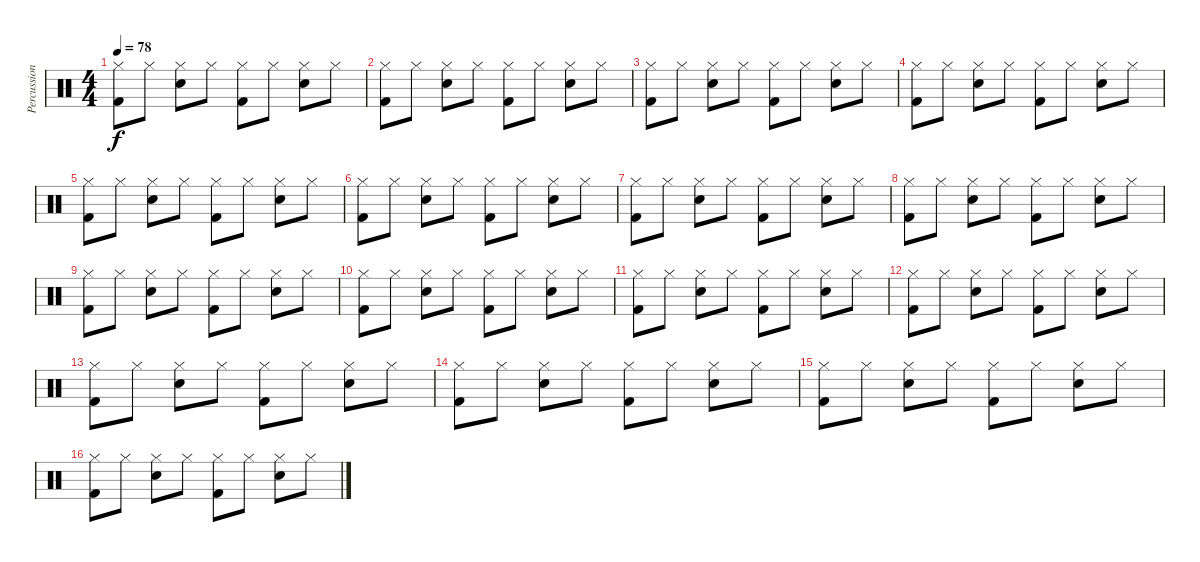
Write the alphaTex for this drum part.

\track ("Percussions" "Percussion") {instrument percussion}
\staff {score}
\articulation defaults
\ts (4 4)
\tempo 78
\clef neutral
\ks c
("Hi-Hat (closed)" "Kick (hit) 2").8{dy f} "Hi-Hat (closed)".8 ("Hi-Hat (closed)" "Electric Snare (hit)").8 "Hi-Hat (closed)".8 ("Hi-Hat (closed)" "Kick (hit) 2").8 "Hi-Hat (closed)".8 ("Hi-Hat (closed)" "Electric Snare (hit)").8 "Hi-Hat (closed)".8 |
("Hi-Hat (closed)" "Kick (hit) 2").8 "Hi-Hat (closed)".8 ("Hi-Hat (closed)" "Electric Snare (hit)").8 "Hi-Hat (closed)".8 ("Hi-Hat (closed)" "Kick (hit) 2").8 "Hi-Hat (closed)".8 ("Hi-Hat (closed)" "Electric Snare (hit)").8 "Hi-Hat (closed)".8 |
("Hi-Hat (closed)" "Kick (hit) 2").8 "Hi-Hat (closed)".8 ("Hi-Hat (closed)" "Electric Snare (hit)").8 "Hi-Hat (closed)".8 ("Hi-Hat (closed)" "Kick (hit) 2").8 "Hi-Hat (closed)".8 ("Hi-Hat (closed)" "Electric Snare (hit)").8 "Hi-Hat (closed)".8 |
("Hi-Hat (closed)" "Kick (hit) 2").8 "Hi-Hat (closed)".8 ("Hi-Hat (closed)" "Electric Snare (hit)").8 "Hi-Hat (closed)".8 ("Hi-Hat (closed)" "Kick (hit) 2").8 "Hi-Hat (closed)".8 ("Hi-Hat (closed)" "Electric Snare (hit)").8 "Hi-Hat (closed)".8 |
("Hi-Hat (closed)" "Kick (hit) 2").8 "Hi-Hat (closed)".8 ("Hi-Hat (closed)" "Electric Snare (hit)").8 "Hi-Hat (closed)".8 ("Hi-Hat (closed)" "Kick (hit) 2").8 "Hi-Hat (closed)".8 ("Hi-Hat (closed)" "Electric Snare (hit)").8 "Hi-Hat (closed)".8 |
("Hi-Hat (closed)" "Kick (hit) 2").8 "Hi-Hat (closed)".8 ("Hi-Hat (closed)" "Electric Snare (hit)").8 "Hi-Hat (closed)".8 ("Hi-Hat (closed)" "Kick (hit) 2").8 "Hi-Hat (closed)".8 ("Hi-Hat (closed)" "Electric Snare (hit)").8 "Hi-Hat (closed)".8 |
("Hi-Hat (closed)" "Kick (hit) 2").8 "Hi-Hat (closed)".8 ("Hi-Hat (closed)" "Electric Snare (hit)").8 "Hi-Hat (closed)".8 ("Hi-Hat (closed)" "Kick (hit) 2").8 "Hi-Hat (closed)".8 ("Hi-Hat (closed)" "Electric Snare (hit)").8 "Hi-Hat (closed)".8 |
("Hi-Hat (closed)" "Kick (hit) 2").8 "Hi-Hat (closed)".8 ("Hi-Hat (closed)" "Electric Snare (hit)").8 "Hi-Hat (closed)".8 ("Hi-Hat (closed)" "Kick (hit) 2").8 "Hi-Hat (closed)".8 ("Hi-Hat (closed)" "Electric Snare (hit)").8 "Hi-Hat (closed)".8 |
("Hi-Hat (closed)" "Kick (hit) 2").8 "Hi-Hat (closed)".8 ("Hi-Hat (closed)" "Electric Snare (hit)").8 "Hi-Hat (closed)".8 ("Hi-Hat (closed)" "Kick (hit) 2").8 "Hi-Hat (closed)".8 ("Hi-Hat (closed)" "Electric Snare (hit)").8 "Hi-Hat (closed)".8 |
("Hi-Hat (closed)" "Kick (hit) 2").8 "Hi-Hat (closed)".8 ("Hi-Hat (closed)" "Electric Snare (hit)").8 "Hi-Hat (closed)".8 ("Hi-Hat (closed)" "Kick (hit) 2").8 "Hi-Hat (closed)".8 ("Hi-Hat (closed)" "Electric Snare (hit)").8 "Hi-Hat (closed)".8 |
("Hi-Hat (closed)" "Kick (hit) 2").8 "Hi-Hat (closed)".8 ("Hi-Hat (closed)" "Electric Snare (hit)").8 "Hi-Hat (closed)".8 ("Hi-Hat (closed)" "Kick (hit) 2").8 "Hi-Hat (closed)".8 ("Hi-Hat (closed)" "Electric Snare (hit)").8 "Hi-Hat (closed)".8 |
("Hi-Hat (closed)" "Kick (hit) 2").8 "Hi-Hat (closed)".8 ("Hi-Hat (closed)" "Electric Snare (hit)").8 "Hi-Hat (closed)".8 ("Hi-Hat (closed)" "Kick (hit) 2").8 "Hi-Hat (closed)".8 ("Hi-Hat (closed)" "Electric Snare (hit)").8 "Hi-Hat (closed)".8 |
("Hi-Hat (closed)" "Kick (hit) 2").8 "Hi-Hat (closed)".8 ("Hi-Hat (closed)" "Electric Snare (hit)").8 "Hi-Hat (closed)".8 ("Hi-Hat (closed)" "Kick (hit) 2").8 "Hi-Hat (closed)".8 ("Hi-Hat (closed)" "Electric Snare (hit)").8 "Hi-Hat (closed)".8 |
("Hi-Hat (closed)" "Kick (hit) 2").8 "Hi-Hat (closed)".8 ("Hi-Hat (closed)" "Electric Snare (hit)").8 "Hi-Hat (closed)".8 ("Hi-Hat (closed)" "Kick (hit) 2").8 "Hi-Hat (closed)".8 ("Hi-Hat (closed)" "Electric Snare (hit)").8 "Hi-Hat (closed)".8 |
("Hi-Hat (closed)" "Kick (hit) 2").8 "Hi-Hat (closed)".8 ("Hi-Hat (closed)" "Electric Snare (hit)").8 "Hi-Hat (closed)".8 ("Hi-Hat (closed)" "Kick (hit) 2").8 "Hi-Hat (closed)".8 ("Hi-Hat (closed)" "Electric Snare (hit)").8 "Hi-Hat (closed)".8 |
("Hi-Hat (closed)" "Kick (hit) 2").8 "Hi-Hat (closed)".8 ("Hi-Hat (closed)" "Electric Snare (hit)").8 "Hi-Hat (closed)".8 ("Hi-Hat (closed)" "Kick (hit) 2").8 "Hi-Hat (closed)".8 ("Hi-Hat (closed)" "Electric Snare (hit)").8 "Hi-Hat (closed)".8
